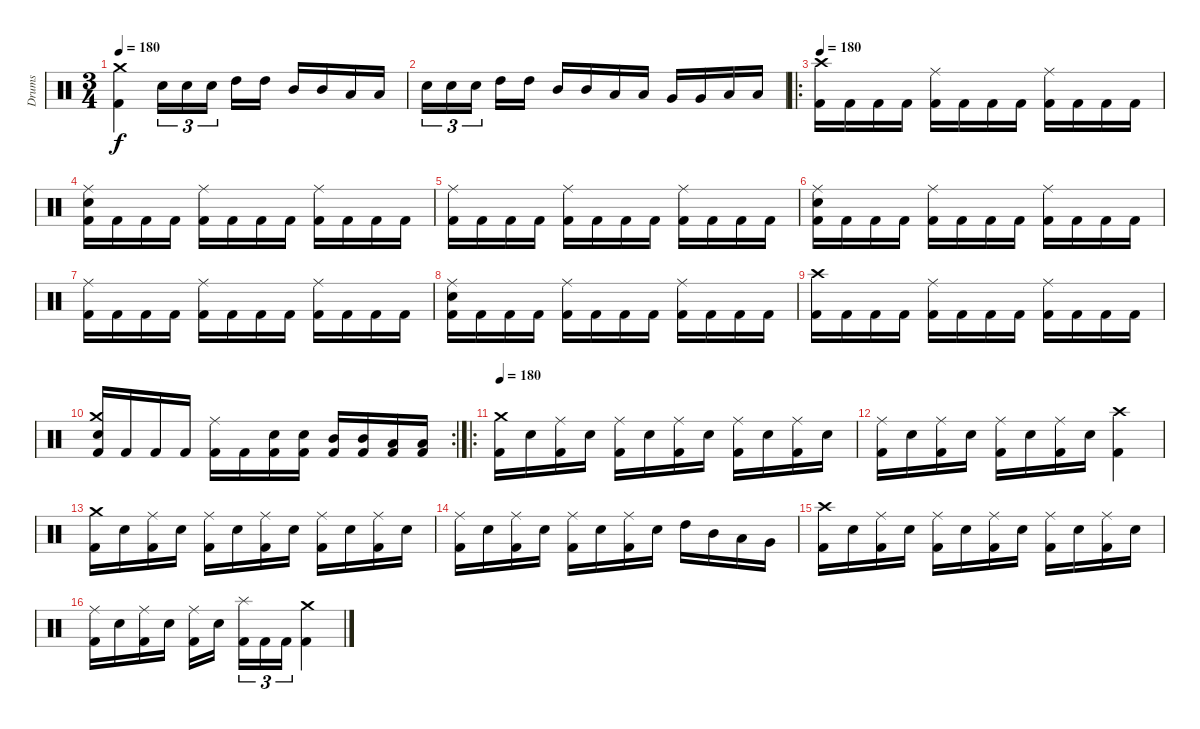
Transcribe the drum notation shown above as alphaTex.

\track ("Drums" "Drums") {instrument percussion}
\staff {score}
\articulation defaults
\ts (3 4)
\tempo 180
\clef neutral
\ks c
("Kick (hit) 2" "Crash medium (hit)").4{dy f} "Electric Snare (hit)".16{tu (3 2)} "Electric Snare (hit)".16{tu (3 2)} "Electric Snare (hit)".16{tu (3 2)} "High Tom (hit)".16 "High Tom (hit)".16 "Mid Tom (hit)".16 "Mid Tom (hit)".16 "Low Tom (hit)".16 "Low Tom (hit)".16 |
"Electric Snare (hit)".16{tu (3 2)} "Electric Snare (hit)".16{tu (3 2)} "Electric Snare (hit)".16{tu (3 2)} "High Tom (hit)".16 "High Tom (hit)".16 "Mid Tom (hit)".16 "Mid Tom (hit)".16 "Low Tom (hit)".16 "Low Tom (hit)".16 "Very Low Tom (hit)".16 "Very Low Tom (hit)".16 "Low Floor Tom (hit)".16 "Low Floor Tom (hit)".16 |
\ro
\tempo 180
("Kick (hit) 2" "Crash high (hit)").16 "Kick (hit) 2".16 "Kick (hit) 2".16 "Kick (hit) 2".16 ("Kick (hit) 2" "Ride (middle)").16 "Kick (hit) 2".16 "Kick (hit) 2".16 "Kick (hit) 2".16 ("Kick (hit) 2" "Ride (middle)").16 "Kick (hit) 2".16 "Kick (hit) 2".16 "Kick (hit) 2".16 |
("Kick (hit) 2" "Electric Snare (hit)" "Ride (middle)").16 "Kick (hit) 2".16 "Kick (hit) 2".16 "Kick (hit) 2".16 ("Kick (hit) 2" "Ride (middle)").16 "Kick (hit) 2".16 "Kick (hit) 2".16 "Kick (hit) 2".16 ("Kick (hit) 2" "Ride (middle)").16 "Kick (hit) 2".16 "Kick (hit) 2".16 "Kick (hit) 2".16 |
("Kick (hit) 2" "Ride (middle)").16 "Kick (hit) 2".16 "Kick (hit) 2".16 "Kick (hit) 2".16 ("Kick (hit) 2" "Ride (middle)").16 "Kick (hit) 2".16 "Kick (hit) 2".16 "Kick (hit) 2".16 ("Kick (hit) 2" "Ride (middle)").16 "Kick (hit) 2".16 "Kick (hit) 2".16 "Kick (hit) 2".16 |
("Kick (hit) 2" "Electric Snare (hit)" "Ride (middle)").16 "Kick (hit) 2".16 "Kick (hit) 2".16 "Kick (hit) 2".16 ("Kick (hit) 2" "Ride (middle)").16 "Kick (hit) 2".16 "Kick (hit) 2".16 "Kick (hit) 2".16 ("Kick (hit) 2" "Ride (middle)").16 "Kick (hit) 2".16 "Kick (hit) 2".16 "Kick (hit) 2".16 |
("Kick (hit) 2" "Ride (middle)").16 "Kick (hit) 2".16 "Kick (hit) 2".16 "Kick (hit) 2".16 ("Kick (hit) 2" "Ride (middle)").16 "Kick (hit) 2".16 "Kick (hit) 2".16 "Kick (hit) 2".16 ("Kick (hit) 2" "Ride (middle)").16 "Kick (hit) 2".16 "Kick (hit) 2".16 "Kick (hit) 2".16 |
("Kick (hit) 2" "Electric Snare (hit)" "Ride (middle)").16 "Kick (hit) 2".16 "Kick (hit) 2".16 "Kick (hit) 2".16 ("Kick (hit) 2" "Ride (middle)").16 "Kick (hit) 2".16 "Kick (hit) 2".16 "Kick (hit) 2".16 ("Kick (hit) 2" "Ride (middle)").16 "Kick (hit) 2".16 "Kick (hit) 2".16 "Kick (hit) 2".16 |
("Kick (hit) 2" "Crash high (hit)").16 "Kick (hit) 2".16 "Kick (hit) 2".16 "Kick (hit) 2".16 ("Kick (hit) 2" "Ride (middle)").16 "Kick (hit) 2".16 "Kick (hit) 2".16 "Kick (hit) 2".16 ("Kick (hit) 2" "Ride (middle)").16 "Kick (hit) 2".16 "Kick (hit) 2".16 "Kick (hit) 2".16 |
\rc 2
("Kick (hit) 2" "Electric Snare (hit)" "Crash medium (hit)").16 "Kick (hit) 2".16 "Kick (hit) 2".16 "Kick (hit) 2".16 ("Kick (hit) 2" "Ride (middle)").16 "Kick (hit) 2".16 ("Kick (hit) 2" "Electric Snare (hit)").16 ("Kick (hit) 2" "Electric Snare (hit)").16 ("Kick (hit) 2" "Mid Tom (hit)").16 ("Kick (hit) 2" "Mid Tom (hit)").16 ("Kick (hit) 2" "Low Tom (hit)").16 ("Kick (hit) 2" "Low Tom (hit)").16 |
\ro
\tempo 180
("Kick (hit) 2" "Crash medium (hit)").16 "Electric Snare (hit)".16 ("Kick (hit) 2" "Ride (middle)").16 "Electric Snare (hit)".16 ("Kick (hit) 2" "Ride (middle)").16 "Electric Snare (hit)".16 ("Kick (hit) 2" "Ride (middle)").16 "Electric Snare (hit)".16 ("Kick (hit) 2" "Ride (middle)").16 "Electric Snare (hit)".16 ("Kick (hit) 2" "Ride (middle)").16 "Electric Snare (hit)".16 |
("Kick (hit) 2" "Ride (middle)").16 "Electric Snare (hit)".16 ("Kick (hit) 2" "Ride (middle)").16 "Electric Snare (hit)".16 ("Kick (hit) 2" "Ride (middle)").16 "Electric Snare (hit)".16 ("Kick (hit) 2" "Ride (middle)").16 "Electric Snare (hit)".16 ("Kick (hit) 2" "Crash high (hit)").4 |
("Kick (hit) 2" "Crash medium (hit)").16 "Electric Snare (hit)".16 ("Kick (hit) 2" "Ride (middle)").16 "Electric Snare (hit)".16 ("Kick (hit) 2" "Ride (middle)").16 "Electric Snare (hit)".16 ("Kick (hit) 2" "Ride (middle)").16 "Electric Snare (hit)".16 ("Kick (hit) 2" "Ride (middle)").16 "Electric Snare (hit)".16 ("Kick (hit) 2" "Ride (middle)").16 "Electric Snare (hit)".16 |
("Kick (hit) 2" "Ride (middle)").16 "Electric Snare (hit)".16 ("Kick (hit) 2" "Ride (middle)").16 "Electric Snare (hit)".16 ("Kick (hit) 2" "Ride (middle)").16 "Electric Snare (hit)".16 ("Kick (hit) 2" "Ride (middle)").16 "Electric Snare (hit)".16 "High Tom (hit)".16 "Mid Tom (hit)".16 "Low Tom (hit)".16 "Very Low Tom (hit)".16 |
("Kick (hit) 2" "Crash high (hit)").16 "Electric Snare (hit)".16 ("Kick (hit) 2" "Ride (middle)").16 "Electric Snare (hit)".16 ("Kick (hit) 2" "Ride (middle)").16 "Electric Snare (hit)".16 ("Kick (hit) 2" "Ride (middle)").16 "Electric Snare (hit)".16 ("Kick (hit) 2" "Ride (middle)").16 "Electric Snare (hit)".16 ("Kick (hit) 2" "Ride (middle)").16 "Electric Snare (hit)".16 |
("Kick (hit) 2" "Ride (middle)").16 "Electric Snare (hit)".16 ("Kick (hit) 2" "Ride (middle)").16 "Electric Snare (hit)".16 ("Kick (hit) 2" "Ride (middle)").16 "Electric Snare (hit)".16 ("Kick (hit) 2" "Splash (hit)").16{tu (3 2)} "Kick (hit) 2".16{tu (3 2)} "Kick (hit) 2".16{tu (3 2)} ("Kick (hit) 2" "Crash medium (hit)").4
